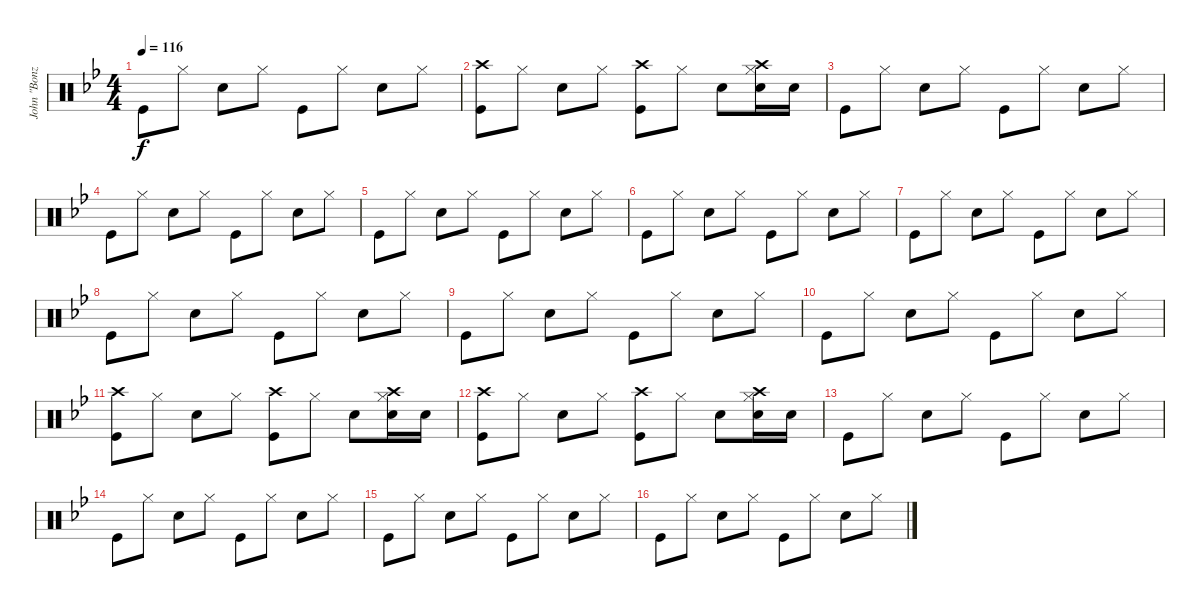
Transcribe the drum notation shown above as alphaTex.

\track ("John \"Bonzo\" Bonham" "John \"Bonz") {instrument percussion}
\staff {score}
\articulation defaults
\ts (4 4)
\tempo 116
\clef neutral
\ks bb "Kick (hit)".8{dy f} "Hi-Hat (closed)".8 "Snare (hit) 2".8 "Hi-Hat (closed)".8 "Kick (hit)".8 "Hi-Hat (closed)".8 "Snare (hit) 2".8 "Hi-Hat (closed)".8
|
("Kick (hit)" "Crash high (hit)").8 "Hi-Hat (closed)".8 "Snare (hit) 2".8 "Hi-Hat (closed)".8 ("Kick (hit)" "Crash high (hit)").8 "Hi-Hat (closed)".8 "Snare (hit) 2".8 ("Snare (hit) 2" "Hi-Hat (closed)" "Crash high (hit)").16 "Snare (hit) 2".16 |
"Kick (hit)".8 "Hi-Hat (closed)".8 "Snare (hit) 2".8 "Hi-Hat (closed)".8 "Kick (hit)".8 "Hi-Hat (closed)".8 "Snare (hit) 2".8 "Hi-Hat (closed)".8 |
"Kick (hit)".8 "Hi-Hat (closed)".8 "Snare (hit) 2".8 "Hi-Hat (closed)".8 "Kick (hit)".8 "Hi-Hat (closed)".8 "Snare (hit) 2".8 "Hi-Hat (closed)".8 |
"Kick (hit)".8 "Hi-Hat (closed)".8 "Snare (hit) 2".8 "Hi-Hat (closed)".8 "Kick (hit)".8 "Hi-Hat (closed)".8 "Snare (hit) 2".8 "Hi-Hat (closed)".8 |
"Kick (hit)".8 "Hi-Hat (closed)".8 "Snare (hit) 2".8 "Hi-Hat (closed)".8 "Kick (hit)".8 "Hi-Hat (closed)".8 "Snare (hit) 2".8 "Hi-Hat (closed)".8 |
"Kick (hit)".8 "Hi-Hat (closed)".8 "Snare (hit) 2".8 "Hi-Hat (closed)".8 "Kick (hit)".8 "Hi-Hat (closed)".8 "Snare (hit) 2".8 "Hi-Hat (closed)".8 |
"Kick (hit)".8 "Hi-Hat (closed)".8 "Snare (hit) 2".8 "Hi-Hat (closed)".8 "Kick (hit)".8 "Hi-Hat (closed)".8 "Snare (hit) 2".8 "Hi-Hat (closed)".8 |
"Kick (hit)".8 "Hi-Hat (closed)".8 "Snare (hit) 2".8 "Hi-Hat (closed)".8 "Kick (hit)".8 "Hi-Hat (closed)".8 "Snare (hit) 2".8 "Hi-Hat (closed)".8 |
"Kick (hit)".8 "Hi-Hat (closed)".8 "Snare (hit) 2".8 "Hi-Hat (closed)".8 "Kick (hit)".8 "Hi-Hat (closed)".8 "Snare (hit) 2".8 "Hi-Hat (closed)".8 |
("Kick (hit)" "Crash high (hit)").8 "Hi-Hat (closed)".8 "Snare (hit) 2".8 "Hi-Hat (closed)".8 ("Kick (hit)" "Crash high (hit)").8 "Hi-Hat (closed)".8 "Snare (hit) 2".8 ("Snare (hit) 2" "Hi-Hat (closed)" "Crash high (hit)").16 "Snare (hit) 2".16 |
("Kick (hit)" "Crash high (hit)").8 "Hi-Hat (closed)".8 "Snare (hit) 2".8 "Hi-Hat (closed)".8 ("Kick (hit)" "Crash high (hit)").8 "Hi-Hat (closed)".8 "Snare (hit) 2".8 ("Snare (hit) 2" "Hi-Hat (closed)" "Crash high (hit)").16 "Snare (hit) 2".16 |
"Kick (hit)".8 "Hi-Hat (closed)".8 "Snare (hit) 2".8 "Hi-Hat (closed)".8 "Kick (hit)".8 "Hi-Hat (closed)".8 "Snare (hit) 2".8 "Hi-Hat (closed)".8 |
"Kick (hit)".8 "Hi-Hat (closed)".8 "Snare (hit) 2".8 "Hi-Hat (closed)".8 "Kick (hit)".8 "Hi-Hat (closed)".8 "Snare (hit) 2".8 "Hi-Hat (closed)".8 |
"Kick (hit)".8 "Hi-Hat (closed)".8 "Snare (hit) 2".8 "Hi-Hat (closed)".8 "Kick (hit)".8 "Hi-Hat (closed)".8 "Snare (hit) 2".8 "Hi-Hat (closed)".8 |
"Kick (hit)".8 "Hi-Hat (closed)".8 "Snare (hit) 2".8 "Hi-Hat (closed)".8 "Kick (hit)".8 "Hi-Hat (closed)".8 "Snare (hit) 2".8 "Hi-Hat (closed)".8
